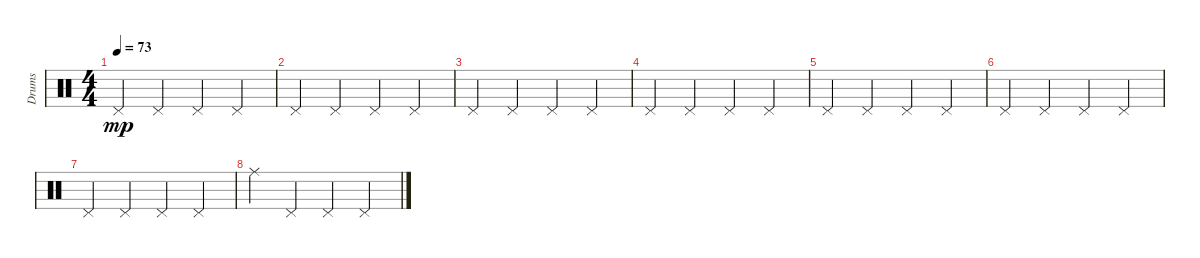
\track ("Drums" "Drums") {instrument percussion}
\staff {score}
\articulation defaults
\ts (4 4)
\tempo 73
\clef neutral
\ks c "Pedal Hi-Hat (hit)".4{dy mp} "Pedal Hi-Hat (hit)".4 "Pedal Hi-Hat (hit)".4 "Pedal Hi-Hat (hit)".4
|
"Pedal Hi-Hat (hit)".4 "Pedal Hi-Hat (hit)".4 "Pedal Hi-Hat (hit)".4 "Pedal Hi-Hat (hit)".4 |
"Pedal Hi-Hat (hit)".4 "Pedal Hi-Hat (hit)".4 "Pedal Hi-Hat (hit)".4 "Pedal Hi-Hat (hit)".4 |
"Pedal Hi-Hat (hit)".4 "Pedal Hi-Hat (hit)".4 "Pedal Hi-Hat (hit)".4 "Pedal Hi-Hat (hit)".4 |
"Pedal Hi-Hat (hit)".4 "Pedal Hi-Hat (hit)".4 "Pedal Hi-Hat (hit)".4 "Pedal Hi-Hat (hit)".4 |
"Pedal Hi-Hat (hit)".4 "Pedal Hi-Hat (hit)".4 "Pedal Hi-Hat (hit)".4 "Pedal Hi-Hat (hit)".4 |
"Pedal Hi-Hat (hit)".4 "Pedal Hi-Hat (hit)".4 "Pedal Hi-Hat (hit)".4 "Pedal Hi-Hat (hit)".4 |
"Ride (middle)".4 "Pedal Hi-Hat (hit)".4 "Pedal Hi-Hat (hit)".4 "Pedal Hi-Hat (hit)".4
